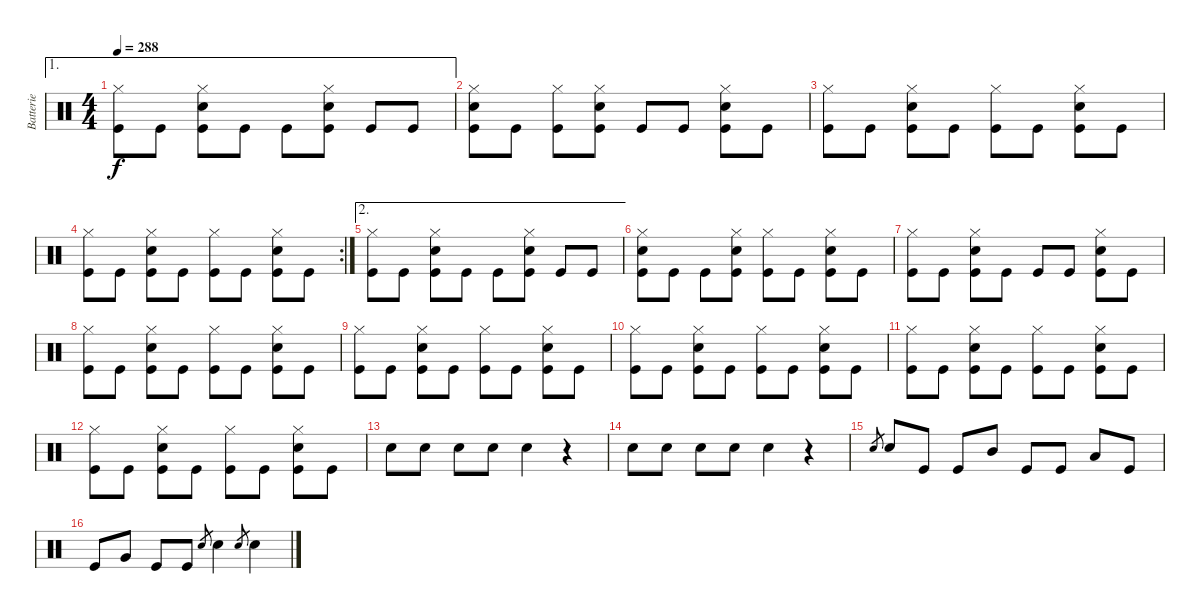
\track ("Batterie" "Batterie") {instrument percussion}
\staff {score}
\articulation defaults
\ae 1
\ts (4 4)
\tempo 288
\clef neutral
\ks c
("Hi-Hat (closed)" "Kick (hit)").8{dy f} "Kick (hit)".8 ("Hi-Hat (closed)" "Snare (hit) 2" "Kick (hit)").8 "Kick (hit)".8 "Kick (hit)".8 ("Hi-Hat (closed)" "Snare (hit) 2" "Kick (hit)").8 "Kick (hit)".8 "Kick (hit)".8 |
("Hi-Hat (closed)" "Snare (hit) 2" "Kick (hit)").8 "Kick (hit)".8 ("Hi-Hat (closed)" "Kick (hit)").8 ("Hi-Hat (closed)" "Snare (hit) 2" "Kick (hit)").8 "Kick (hit)".8 "Kick (hit)".8 ("Hi-Hat (closed)" "Snare (hit) 2" "Kick (hit)").8 "Kick (hit)".8 |
("Hi-Hat (closed)" "Kick (hit)").8 "Kick (hit)".8 ("Hi-Hat (closed)" "Snare (hit) 2" "Kick (hit)").8 "Kick (hit)".8 ("Hi-Hat (closed)" "Kick (hit)").8 "Kick (hit)".8 ("Hi-Hat (closed)" "Snare (hit) 2" "Kick (hit)").8 "Kick (hit)".8 |
\rc 2
("Hi-Hat (closed)" "Kick (hit)").8 "Kick (hit)".8 ("Hi-Hat (closed)" "Snare (hit) 2" "Kick (hit)").8 "Kick (hit)".8 ("Hi-Hat (closed)" "Kick (hit)").8 "Kick (hit)".8 ("Hi-Hat (closed)" "Snare (hit) 2" "Kick (hit)").8 "Kick (hit)".8 |
\ae 2
("Hi-Hat (closed)" "Kick (hit)").8 "Kick (hit)".8 ("Hi-Hat (closed)" "Snare (hit) 2" "Kick (hit)").8 "Kick (hit)".8 "Kick (hit)".8 ("Hi-Hat (closed)" "Snare (hit) 2" "Kick (hit)").8 "Kick (hit)".8 "Kick (hit)".8 |
("Hi-Hat (closed)" "Snare (hit) 2" "Kick (hit)").8 "Kick (hit)".8 "Kick (hit)".8 ("Hi-Hat (closed)" "Snare (hit) 2" "Kick (hit)").8 ("Hi-Hat (closed)" "Kick (hit)").8 "Kick (hit)".8 ("Hi-Hat (closed)" "Snare (hit) 2" "Kick (hit)").8 "Kick (hit)".8 |
("Hi-Hat (closed)" "Kick (hit)").8 "Kick (hit)".8 ("Hi-Hat (closed)" "Snare (hit) 2" "Kick (hit)").8 "Kick (hit)".8 "Kick (hit)".8 "Kick (hit)".8 ("Hi-Hat (closed)" "Snare (hit) 2" "Kick (hit)").8 "Kick (hit)".8 |
("Hi-Hat (closed)" "Kick (hit)").8 "Kick (hit)".8 ("Hi-Hat (closed)" "Snare (hit) 2" "Kick (hit)").8 "Kick (hit)".8 ("Hi-Hat (closed)" "Kick (hit)").8 "Kick (hit)".8 ("Hi-Hat (closed)" "Snare (hit) 2" "Kick (hit)").8 "Kick (hit)".8 |
("Hi-Hat (closed)" "Kick (hit)").8 "Kick (hit)".8 ("Hi-Hat (closed)" "Snare (hit) 2" "Kick (hit)").8 "Kick (hit)".8 ("Hi-Hat (closed)" "Kick (hit)").8 "Kick (hit)".8 ("Hi-Hat (closed)" "Snare (hit) 2" "Kick (hit)").8 "Kick (hit)".8 |
("Hi-Hat (closed)" "Kick (hit)").8 "Kick (hit)".8 ("Hi-Hat (closed)" "Snare (hit) 2" "Kick (hit)").8 "Kick (hit)".8 ("Hi-Hat (closed)" "Kick (hit)").8 "Kick (hit)".8 ("Hi-Hat (closed)" "Snare (hit) 2" "Kick (hit)").8 "Kick (hit)".8 |
("Hi-Hat (closed)" "Kick (hit)").8 "Kick (hit)".8 ("Hi-Hat (closed)" "Snare (hit) 2" "Kick (hit)").8 "Kick (hit)".8 ("Hi-Hat (closed)" "Kick (hit)").8 "Kick (hit)".8 ("Hi-Hat (closed)" "Snare (hit) 2" "Kick (hit)").8 "Kick (hit)".8 |
("Hi-Hat (closed)" "Kick (hit)").8 "Kick (hit)".8 ("Hi-Hat (closed)" "Snare (hit) 2" "Kick (hit)").8 "Kick (hit)".8 ("Hi-Hat (closed)" "Kick (hit)").8 "Kick (hit)".8 ("Hi-Hat (closed)" "Snare (hit) 2" "Kick (hit)").8 "Kick (hit)".8 |
"Snare (hit) 2".8 "Snare (hit) 2".8 "Snare (hit) 2".8 "Snare (hit) 2".8 "Snare (hit) 2".4 r.4 |
"Snare (hit) 2".8 "Snare (hit) 2".8 "Snare (hit) 2".8 "Snare (hit) 2".8 "Snare (hit) 2".4 r.4 |
"Snare (hit) 2".8{gr} "Snare (hit) 2".8 "Kick (hit)".8 "Kick (hit)".8 "Mid Tom (hit)".8 "Kick (hit)".8 "Kick (hit)".8 "Low Tom (hit)".8 "Kick (hit)".8 |
"Kick (hit)".8 "Very Low Tom (hit)".8 "Kick (hit)".8 "Kick (hit)".8 "Snare (hit) 2".8{gr} "Snare (hit) 2".4 "Snare (hit) 2".8{gr} "Snare (hit) 2".4
